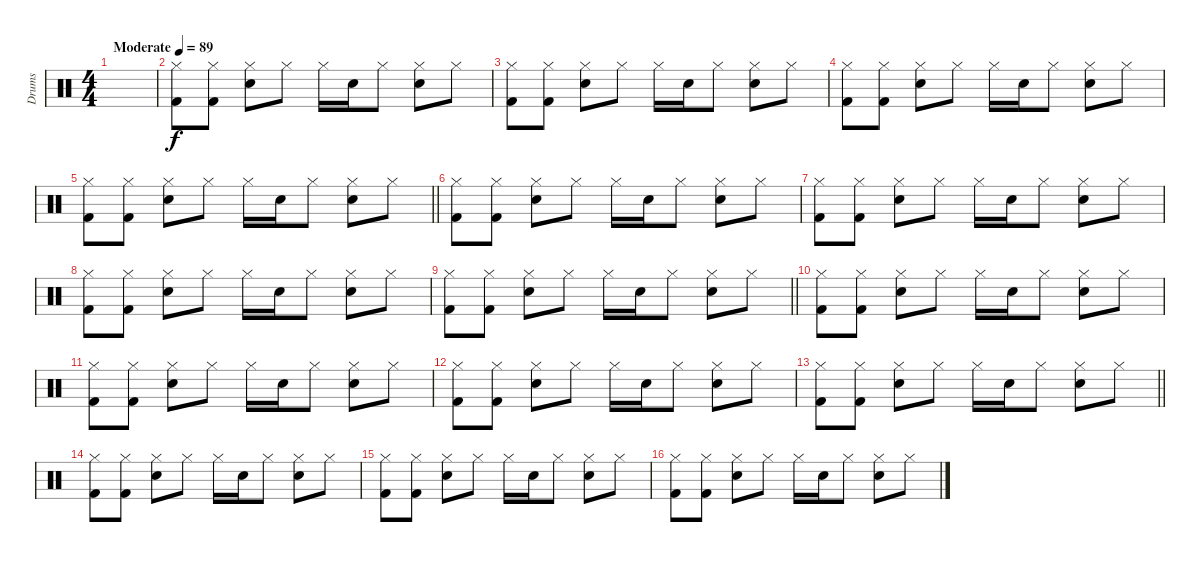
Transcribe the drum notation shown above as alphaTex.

\track ("Drums" "Drums") {instrument percussion}
\staff {score}
\articulation defaults
\ts (4 4)
\tempo (89 "Moderate")
\clef neutral
\ks c
|
("Hi-Hat (closed)" "Kick (hit) 2").8 ("Hi-Hat (closed)" "Kick (hit) 2").8 ("Hi-Hat (closed)" "Snare (hit) 2").8 "Hi-Hat (closed)".8 "Hi-Hat (closed)".16 "Snare (hit) 2".16 "Hi-Hat (closed)".8 ("Hi-Hat (closed)" "Snare (hit) 2").8 "Hi-Hat (closed)".8 |
("Hi-Hat (closed)" "Kick (hit) 2").8 ("Hi-Hat (closed)" "Kick (hit) 2").8 ("Hi-Hat (closed)" "Snare (hit) 2").8 "Hi-Hat (closed)".8 "Hi-Hat (closed)".16 "Snare (hit) 2".16 "Hi-Hat (closed)".8 ("Hi-Hat (closed)" "Snare (hit) 2").8 "Hi-Hat (closed)".8 |
("Hi-Hat (closed)" "Kick (hit) 2").8 ("Hi-Hat (closed)" "Kick (hit) 2").8 ("Hi-Hat (closed)" "Snare (hit) 2").8 "Hi-Hat (closed)".8 "Hi-Hat (closed)".16 "Snare (hit) 2".16 "Hi-Hat (closed)".8 ("Hi-Hat (closed)" "Snare (hit) 2").8 "Hi-Hat (closed)".8 |
\barLineRight lightlight
("Hi-Hat (closed)" "Kick (hit) 2").8 ("Hi-Hat (closed)" "Kick (hit) 2").8 ("Hi-Hat (closed)" "Snare (hit) 2").8 "Hi-Hat (closed)".8 "Hi-Hat (closed)".16 "Snare (hit) 2".16 "Hi-Hat (closed)".8 ("Hi-Hat (closed)" "Snare (hit) 2").8 "Hi-Hat (closed)".8 |
("Hi-Hat (closed)" "Kick (hit) 2").8 ("Hi-Hat (closed)" "Kick (hit) 2").8 ("Hi-Hat (closed)" "Snare (hit) 2").8 "Hi-Hat (closed)".8 "Hi-Hat (closed)".16 "Snare (hit) 2".16 "Hi-Hat (closed)".8 ("Hi-Hat (closed)" "Snare (hit) 2").8 "Hi-Hat (closed)".8 |
("Hi-Hat (closed)" "Kick (hit) 2").8 ("Hi-Hat (closed)" "Kick (hit) 2").8 ("Hi-Hat (closed)" "Snare (hit) 2").8 "Hi-Hat (closed)".8 "Hi-Hat (closed)".16 "Snare (hit) 2".16 "Hi-Hat (closed)".8 ("Hi-Hat (closed)" "Snare (hit) 2").8 "Hi-Hat (closed)".8 |
("Hi-Hat (closed)" "Kick (hit) 2").8 ("Hi-Hat (closed)" "Kick (hit) 2").8 ("Hi-Hat (closed)" "Snare (hit) 2").8 "Hi-Hat (closed)".8 "Hi-Hat (closed)".16 "Snare (hit) 2".16 "Hi-Hat (closed)".8 ("Hi-Hat (closed)" "Snare (hit) 2").8 "Hi-Hat (closed)".8 |
\barLineRight lightlight
("Hi-Hat (closed)" "Kick (hit) 2").8 ("Hi-Hat (closed)" "Kick (hit) 2").8 ("Hi-Hat (closed)" "Snare (hit) 2").8 "Hi-Hat (closed)".8 "Hi-Hat (closed)".16 "Snare (hit) 2".16 "Hi-Hat (closed)".8 ("Hi-Hat (closed)" "Snare (hit) 2").8 "Hi-Hat (closed)".8 |
("Hi-Hat (closed)" "Kick (hit) 2").8 ("Hi-Hat (closed)" "Kick (hit) 2").8 ("Hi-Hat (closed)" "Snare (hit) 2").8 "Hi-Hat (closed)".8 "Hi-Hat (closed)".16 "Snare (hit) 2".16 "Hi-Hat (closed)".8 ("Hi-Hat (closed)" "Snare (hit) 2").8 "Hi-Hat (closed)".8 |
("Hi-Hat (closed)" "Kick (hit) 2").8 ("Hi-Hat (closed)" "Kick (hit) 2").8 ("Hi-Hat (closed)" "Snare (hit) 2").8 "Hi-Hat (closed)".8 "Hi-Hat (closed)".16 "Snare (hit) 2".16 "Hi-Hat (closed)".8 ("Hi-Hat (closed)" "Snare (hit) 2").8 "Hi-Hat (closed)".8 |
("Hi-Hat (closed)" "Kick (hit) 2").8 ("Hi-Hat (closed)" "Kick (hit) 2").8 ("Hi-Hat (closed)" "Snare (hit) 2").8 "Hi-Hat (closed)".8 "Hi-Hat (closed)".16 "Snare (hit) 2".16 "Hi-Hat (closed)".8 ("Hi-Hat (closed)" "Snare (hit) 2").8 "Hi-Hat (closed)".8 |
\barLineRight lightlight
("Hi-Hat (closed)" "Kick (hit) 2").8 ("Hi-Hat (closed)" "Kick (hit) 2").8 ("Hi-Hat (closed)" "Snare (hit) 2").8 "Hi-Hat (closed)".8 "Hi-Hat (closed)".16 "Snare (hit) 2".16 "Hi-Hat (closed)".8 ("Hi-Hat (closed)" "Snare (hit) 2").8 "Hi-Hat (closed)".8 |
("Hi-Hat (closed)" "Kick (hit) 2").8 ("Hi-Hat (closed)" "Kick (hit) 2").8 ("Hi-Hat (closed)" "Snare (hit) 2").8 "Hi-Hat (closed)".8 "Hi-Hat (closed)".16 "Snare (hit) 2".16 "Hi-Hat (closed)".8 ("Hi-Hat (closed)" "Snare (hit) 2").8 "Hi-Hat (closed)".8 |
("Hi-Hat (closed)" "Kick (hit) 2").8 ("Hi-Hat (closed)" "Kick (hit) 2").8 ("Hi-Hat (closed)" "Snare (hit) 2").8 "Hi-Hat (closed)".8 "Hi-Hat (closed)".16 "Snare (hit) 2".16 "Hi-Hat (closed)".8 ("Hi-Hat (closed)" "Snare (hit) 2").8 "Hi-Hat (closed)".8 |
("Hi-Hat (closed)" "Kick (hit) 2").8 ("Hi-Hat (closed)" "Kick (hit) 2").8 ("Hi-Hat (closed)" "Snare (hit) 2").8 "Hi-Hat (closed)".8 "Hi-Hat (closed)".16 "Snare (hit) 2".16 "Hi-Hat (closed)".8 ("Hi-Hat (closed)" "Snare (hit) 2").8 "Hi-Hat (closed)".8
